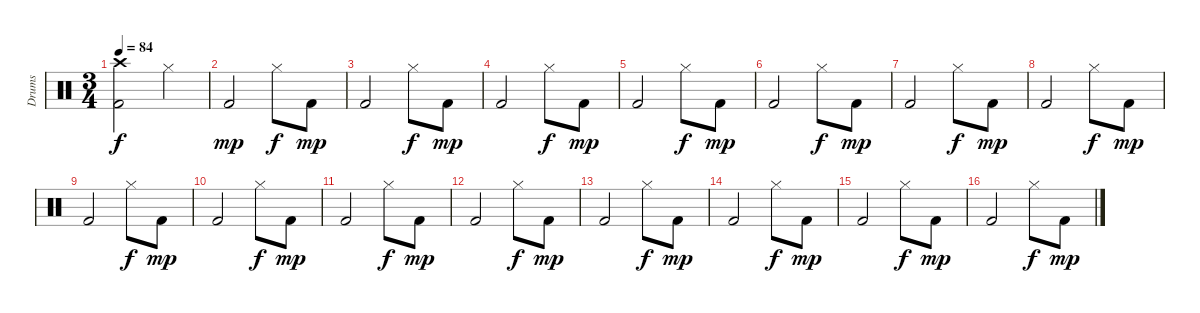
\track ("Drums" "Drums") {instrument percussion}
\staff {score}
\articulation defaults
\ts (3 4)
\tempo 84
\clef neutral
\ks c
("Kick (hit) 2" "Crash high (hit)").2{dy f} "Hi-Hat (closed)".4 |
"Kick (hit) 2".2{dy mp} "Hi-Hat (closed)".8{dy f} "Kick (hit) 2".8{dy mp} |
"Kick (hit) 2".2 "Hi-Hat (closed)".8{dy f} "Kick (hit) 2".8{dy mp} |
"Kick (hit) 2".2 "Hi-Hat (closed)".8{dy f} "Kick (hit) 2".8{dy mp} |
"Kick (hit) 2".2 "Hi-Hat (closed)".8{dy f} "Kick (hit) 2".8{dy mp} |
"Kick (hit) 2".2 "Hi-Hat (closed)".8{dy f} "Kick (hit) 2".8{dy mp} |
"Kick (hit) 2".2 "Hi-Hat (closed)".8{dy f} "Kick (hit) 2".8{dy mp} |
"Kick (hit) 2".2 "Hi-Hat (closed)".8{dy f} "Kick (hit) 2".8{dy mp} |
"Kick (hit) 2".2 "Hi-Hat (closed)".8{dy f} "Kick (hit) 2".8{dy mp} |
"Kick (hit) 2".2 "Hi-Hat (closed)".8{dy f} "Kick (hit) 2".8{dy mp} |
"Kick (hit) 2".2 "Hi-Hat (closed)".8{dy f} "Kick (hit) 2".8{dy mp} |
"Kick (hit) 2".2 "Hi-Hat (closed)".8{dy f} "Kick (hit) 2".8{dy mp} |
"Kick (hit) 2".2 "Hi-Hat (closed)".8{dy f} "Kick (hit) 2".8{dy mp} |
"Kick (hit) 2".2 "Hi-Hat (closed)".8{dy f} "Kick (hit) 2".8{dy mp} |
"Kick (hit) 2".2 "Hi-Hat (closed)".8{dy f} "Kick (hit) 2".8{dy mp} |
"Kick (hit) 2".2 "Hi-Hat (closed)".8{dy f} "Kick (hit) 2".8{dy mp}
